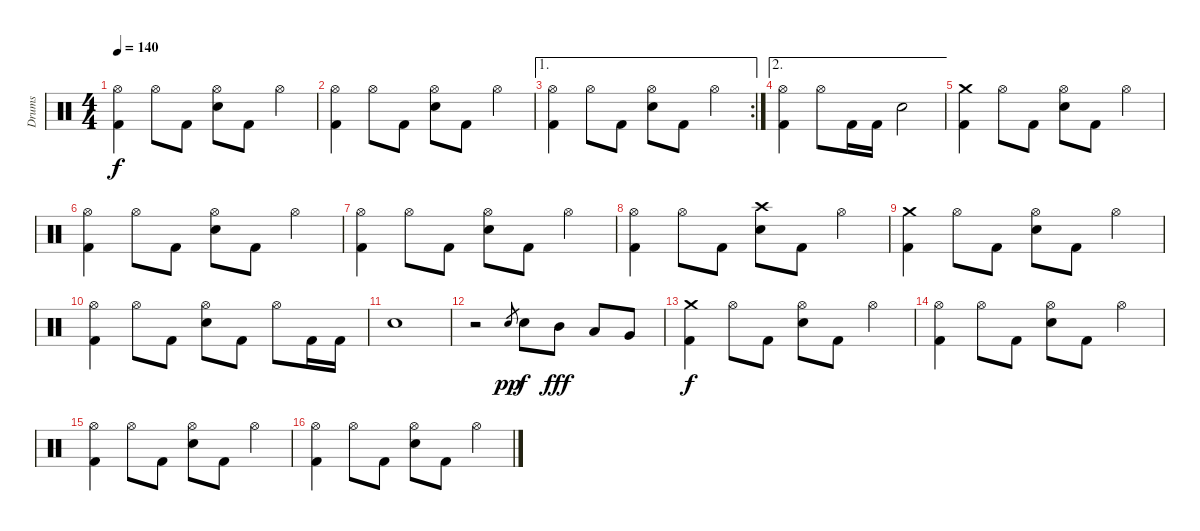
\track ("Drums" "Drums") {instrument percussion}
\staff {score}
\articulation defaults
\ts (4 4)
\tempo 140
\clef neutral
\ks c
("Kick (hit) 2" "Hi-Hat (open)").4{dy f} "Hi-Hat (open)".8 "Kick (hit) 2".8 ("Hi-Hat (open)" "Snare (hit) 2").8 "Kick (hit) 2".8 "Hi-Hat (open)".4 |
("Kick (hit) 2" "Hi-Hat (open)").4 "Hi-Hat (open)".8 "Kick (hit) 2".8 ("Hi-Hat (open)" "Snare (hit) 2").8 "Kick (hit) 2".8 "Hi-Hat (open)".4 |
\ae 1
\rc 2
("Kick (hit) 2" "Hi-Hat (open)").4 "Hi-Hat (open)".8 "Kick (hit) 2".8 ("Hi-Hat (open)" "Snare (hit) 2").8 "Kick (hit) 2".8 "Hi-Hat (open)".4 |
\ae 2
("Kick (hit) 2" "Hi-Hat (open)").4 "Hi-Hat (open)".8 "Kick (hit) 2".16 "Kick (hit) 2".16 "Snare (hit) 2".2 |
("Kick (hit) 2" "Crash medium (hit)").4 "Hi-Hat (open)".8 "Kick (hit) 2".8 ("Hi-Hat (open)" "Snare (hit) 2").8 "Kick (hit) 2".8 "Hi-Hat (open)".4 |
("Kick (hit) 2" "Hi-Hat (open)").4 "Hi-Hat (open)".8 "Kick (hit) 2".8 ("Hi-Hat (open)" "Snare (hit) 2").8 "Kick (hit) 2".8 "Hi-Hat (open)".4 |
("Kick (hit) 2" "Hi-Hat (open)").4 "Hi-Hat (open)".8 "Kick (hit) 2".8 ("Hi-Hat (open)" "Snare (hit) 2").8 "Kick (hit) 2".8 "Hi-Hat (open)".4 |
("Kick (hit) 2" "Hi-Hat (open)").4 "Hi-Hat (open)".8 "Kick (hit) 2".8 ("Crash high (hit)" "Snare (hit) 2").8 "Kick (hit) 2".8 "Hi-Hat (open)".4 |
("Kick (hit) 2" "Crash medium (hit)").4 "Hi-Hat (open)".8 "Kick (hit) 2".8 ("Hi-Hat (open)" "Snare (hit) 2").8 "Kick (hit) 2".8 "Hi-Hat (open)".4 |
("Kick (hit) 2" "Hi-Hat (open)").4 "Hi-Hat (open)".8 "Kick (hit) 2".8 ("Hi-Hat (open)" "Snare (hit) 2").8 "Kick (hit) 2".8 "Hi-Hat (open)".8 "Kick (hit) 2".16 "Kick (hit) 2".16 |
"Snare (hit) 2".1 |
r.2 "Snare (hit)".8{gr dy pp} "Snare (hit) 2".8{dy f} "Mid Tom (hit)".8{dy fff} "Low Tom (hit)".8 "Very Low Tom (hit)".8 |
("Kick (hit) 2" "Crash medium (hit)").4{dy f} "Hi-Hat (open)".8 "Kick (hit) 2".8 ("Hi-Hat (open)" "Snare (hit) 2").8 "Kick (hit) 2".8 "Hi-Hat (open)".4 |
("Kick (hit) 2" "Hi-Hat (open)").4 "Hi-Hat (open)".8 "Kick (hit) 2".8 ("Hi-Hat (open)" "Snare (hit) 2").8 "Kick (hit) 2".8 "Hi-Hat (open)".4 |
("Kick (hit) 2" "Hi-Hat (open)").4 "Hi-Hat (open)".8 "Kick (hit) 2".8 ("Hi-Hat (open)" "Snare (hit) 2").8 "Kick (hit) 2".8 "Hi-Hat (open)".4 |
("Kick (hit) 2" "Hi-Hat (open)").4 "Hi-Hat (open)".8 "Kick (hit) 2".8 ("Hi-Hat (open)" "Snare (hit) 2").8 "Kick (hit) 2".8 "Hi-Hat (open)".4
